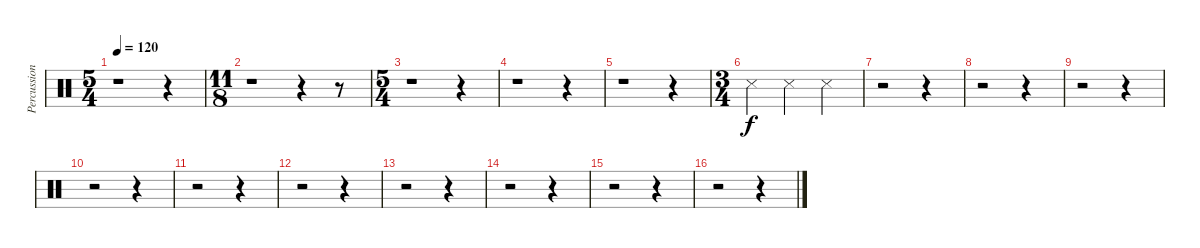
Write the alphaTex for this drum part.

\track ("Percussion" "Percussion") {instrument percussion}
\staff {score}
\articulation defaults
\ts (5 4)
\tempo 120
\clef neutral
\ks c
r.1{dy f} r.4 |
\ts (11 8)
r.1 r.4 r.8 |
\ts (5 4)
r.1 r.4 |
r.1 r.4 |
r.1 r.4 |
\ts (3 4)
"Snare (side stick) 3".4 "Snare (side stick) 3".4 "Snare (side stick) 3".4 |
r.2 r.4 |
r.2 r.4 |
r.2 r.4 |
r.2 r.4 |
r.2 r.4 |
r.2 r.4 |
r.2 r.4 |
r.2 r.4 |
r.2 r.4 |
r.2 r.4
